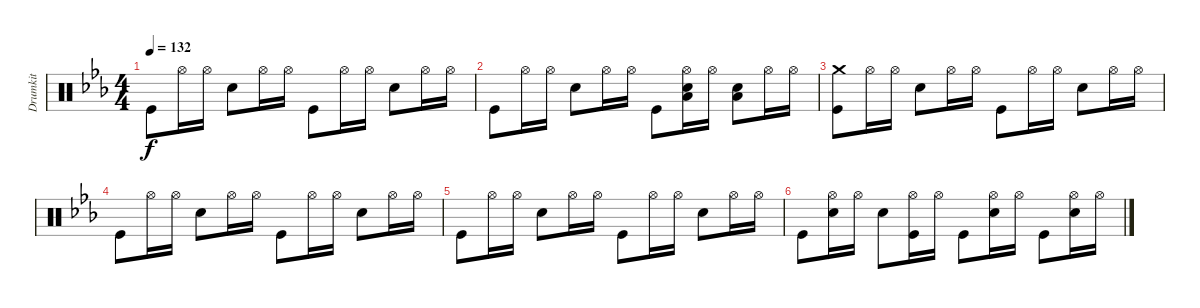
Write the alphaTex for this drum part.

\track ("Drumkit" "Drumkit") {instrument percussion}
\staff {score}
\articulation defaults
\ts (4 4)
\tempo 132
\clef neutral
\ks eb "Kick (hit)".8{dy f} "Hi-Hat (open)".16 "Hi-Hat (open)".16 "Snare (hit) 2".8 "Hi-Hat (open)".16 "Hi-Hat (open)".16 "Kick (hit)".8 "Hi-Hat (open)".16 "Hi-Hat (open)".16 "Snare (hit) 2".8 "Hi-Hat (open)".16 "Hi-Hat (open)".16
|
"Kick (hit)".8 "Hi-Hat (open)".16 "Hi-Hat (open)".16 "Snare (hit) 2".8 "Hi-Hat (open)".16 "Hi-Hat (open)".16 "Kick (hit)".8 ("Hi-Hat (open)" "Snare (hit) 2" "Low Floor Tom (hit)").16 "Hi-Hat (open)".16 ("Snare (hit) 2" "Low Floor Tom (hit)").8 "Hi-Hat (open)".16 "Hi-Hat (open)".16 |
("Kick (hit)" "Crash medium (hit)").8 "Hi-Hat (open)".16 "Hi-Hat (open)".16 "Snare (hit) 2".8 "Hi-Hat (open)".16 "Hi-Hat (open)".16 "Kick (hit)".8 "Hi-Hat (open)".16 "Hi-Hat (open)".16 "Snare (hit) 2".8 "Hi-Hat (open)".16 "Hi-Hat (open)".16 |
"Kick (hit)".8 "Hi-Hat (open)".16 "Hi-Hat (open)".16 "Snare (hit) 2".8 "Hi-Hat (open)".16 "Hi-Hat (open)".16 "Kick (hit)".8 "Hi-Hat (open)".16 "Hi-Hat (open)".16 "Snare (hit) 2".8 "Hi-Hat (open)".16 "Hi-Hat (open)".16 |
"Kick (hit)".8 "Hi-Hat (open)".16 "Hi-Hat (open)".16 "Snare (hit) 2".8 "Hi-Hat (open)".16 "Hi-Hat (open)".16 "Kick (hit)".8 "Hi-Hat (open)".16 "Hi-Hat (open)".16 "Snare (hit) 2".8 "Hi-Hat (open)".16 "Hi-Hat (open)".16 |
"Kick (hit)".8 ("Hi-Hat (open)" "Snare (hit) 2").16 "Hi-Hat (open)".16 "Snare (hit) 2".8 ("Hi-Hat (open)" "Kick (hit)").16 "Hi-Hat (open)".16 "Kick (hit)".8 ("Hi-Hat (open)" "Snare (hit) 2").16 "Hi-Hat (open)".16 "Kick (hit)".8 ("Hi-Hat (open)" "Snare (hit) 2").16 "Hi-Hat (open)".16
